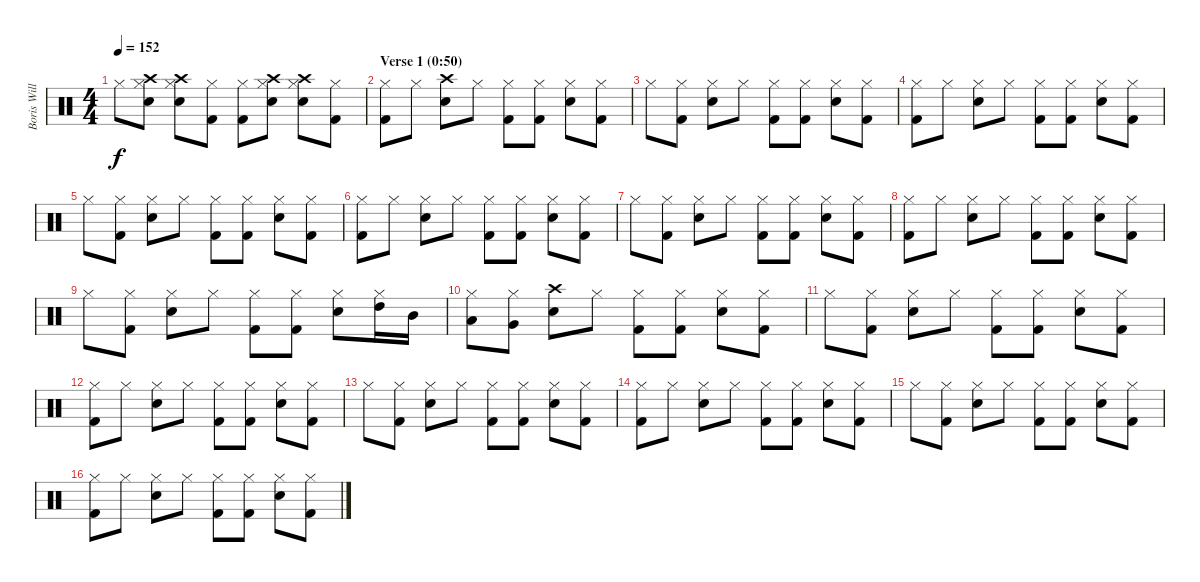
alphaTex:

\track ("Boris Williams (drums)" "Boris Will") {instrument percussion}
\staff {score}
\articulation defaults
\ts (4 4)
\tempo 152
\clef neutral
\ks c "Hi-Hat (closed)".8{dy f}
("Crash high (hit)" "Snare (hit) 2" "Hi-Hat (closed)").8 ("Crash high (hit)" "Snare (hit) 2" "Hi-Hat (closed)").8 ("Kick (hit) 2" "Hi-Hat (closed)").8 ("Kick (hit) 2" "Hi-Hat (closed)").8 ("Crash high (hit)" "Snare (hit) 2" "Hi-Hat (closed)").8 ("Crash high (hit)" "Snare (hit) 2" "Hi-Hat (closed)").8 ("Kick (hit) 2" "Hi-Hat (closed)").8 |
\section ("" "Verse 1 (0:50)")
("Kick (hit) 2" "Hi-Hat (closed)").8 "Hi-Hat (closed)".8 ("Snare (hit) 2" "Crash high (hit)").8 "Hi-Hat (closed)".8 ("Kick (hit) 2" "Hi-Hat (closed)").8 ("Kick (hit) 2" "Hi-Hat (closed)").8 ("Snare (hit) 2" "Hi-Hat (closed)").8 ("Kick (hit) 2" "Hi-Hat (closed)").8 |
"Hi-Hat (closed)".8 ("Kick (hit) 2" "Hi-Hat (closed)").8 ("Snare (hit) 2" "Hi-Hat (closed)").8 "Hi-Hat (closed)".8 ("Kick (hit) 2" "Hi-Hat (closed)").8 ("Kick (hit) 2" "Hi-Hat (closed)").8 ("Snare (hit) 2" "Hi-Hat (closed)").8 ("Kick (hit) 2" "Hi-Hat (closed)").8 |
("Kick (hit) 2" "Hi-Hat (closed)").8 "Hi-Hat (closed)".8 ("Snare (hit) 2" "Hi-Hat (closed)").8 "Hi-Hat (closed)".8 ("Kick (hit) 2" "Hi-Hat (closed)").8 ("Kick (hit) 2" "Hi-Hat (closed)").8 ("Snare (hit) 2" "Hi-Hat (closed)").8 ("Kick (hit) 2" "Hi-Hat (closed)").8 |
"Hi-Hat (closed)".8 ("Kick (hit) 2" "Hi-Hat (closed)").8 ("Snare (hit) 2" "Hi-Hat (closed)").8 "Hi-Hat (closed)".8 ("Kick (hit) 2" "Hi-Hat (closed)").8 ("Kick (hit) 2" "Hi-Hat (closed)").8 ("Snare (hit) 2" "Hi-Hat (closed)").8 ("Kick (hit) 2" "Hi-Hat (closed)").8 |
("Kick (hit) 2" "Hi-Hat (closed)").8 "Hi-Hat (closed)".8 ("Snare (hit) 2" "Hi-Hat (closed)").8 "Hi-Hat (closed)".8 ("Kick (hit) 2" "Hi-Hat (closed)").8 ("Kick (hit) 2" "Hi-Hat (closed)").8 ("Snare (hit) 2" "Hi-Hat (closed)").8 ("Kick (hit) 2" "Hi-Hat (closed)").8 |
"Hi-Hat (closed)".8 ("Kick (hit) 2" "Hi-Hat (closed)").8 ("Snare (hit) 2" "Hi-Hat (closed)").8 "Hi-Hat (closed)".8 ("Kick (hit) 2" "Hi-Hat (closed)").8 ("Kick (hit) 2" "Hi-Hat (closed)").8 ("Snare (hit) 2" "Hi-Hat (closed)").8 ("Kick (hit) 2" "Hi-Hat (closed)").8 |
("Kick (hit) 2" "Hi-Hat (closed)").8 "Hi-Hat (closed)".8 ("Snare (hit) 2" "Hi-Hat (closed)").8 "Hi-Hat (closed)".8 ("Kick (hit) 2" "Hi-Hat (closed)").8 ("Kick (hit) 2" "Hi-Hat (closed)").8 ("Snare (hit) 2" "Hi-Hat (closed)").8 ("Kick (hit) 2" "Hi-Hat (closed)").8 |
"Hi-Hat (closed)".8 ("Kick (hit) 2" "Hi-Hat (closed)").8 ("Snare (hit) 2" "Hi-Hat (closed)").8 "Hi-Hat (closed)".8 ("Kick (hit) 2" "Hi-Hat (closed)").8 ("Kick (hit) 2" "Hi-Hat (closed)").8 ("Snare (hit) 2" "Hi-Hat (closed)").8 ("High Tom (hit)" "Hi-Hat (closed)").16 "Mid Tom (hit)".16 |
("Low Tom (hit)" "Hi-Hat (closed)").8 ("Very Low Tom (hit)" "Hi-Hat (closed)").8 ("Snare (hit) 2" "Crash high (hit)").8 "Hi-Hat (closed)".8 ("Kick (hit) 2" "Hi-Hat (closed)").8 ("Kick (hit) 2" "Hi-Hat (closed)").8 ("Snare (hit) 2" "Hi-Hat (closed)").8 ("Kick (hit) 2" "Hi-Hat (closed)").8 |
"Hi-Hat (closed)".8 ("Kick (hit) 2" "Hi-Hat (closed)").8 ("Snare (hit) 2" "Hi-Hat (closed)").8 "Hi-Hat (closed)".8 ("Kick (hit) 2" "Hi-Hat (closed)").8 ("Kick (hit) 2" "Hi-Hat (closed)").8 ("Snare (hit) 2" "Hi-Hat (closed)").8 ("Kick (hit) 2" "Hi-Hat (closed)").8 |
("Kick (hit) 2" "Hi-Hat (closed)").8 "Hi-Hat (closed)".8 ("Snare (hit) 2" "Hi-Hat (closed)").8 "Hi-Hat (closed)".8 ("Kick (hit) 2" "Hi-Hat (closed)").8 ("Kick (hit) 2" "Hi-Hat (closed)").8 ("Snare (hit) 2" "Hi-Hat (closed)").8 ("Kick (hit) 2" "Hi-Hat (closed)").8 |
"Hi-Hat (closed)".8 ("Kick (hit) 2" "Hi-Hat (closed)").8 ("Snare (hit) 2" "Hi-Hat (closed)").8 "Hi-Hat (closed)".8 ("Kick (hit) 2" "Hi-Hat (closed)").8 ("Kick (hit) 2" "Hi-Hat (closed)").8 ("Snare (hit) 2" "Hi-Hat (closed)").8 ("Kick (hit) 2" "Hi-Hat (closed)").8 |
("Kick (hit) 2" "Hi-Hat (closed)").8 "Hi-Hat (closed)".8 ("Snare (hit) 2" "Hi-Hat (closed)").8 "Hi-Hat (closed)".8 ("Kick (hit) 2" "Hi-Hat (closed)").8 ("Kick (hit) 2" "Hi-Hat (closed)").8 ("Snare (hit) 2" "Hi-Hat (closed)").8 ("Kick (hit) 2" "Hi-Hat (closed)").8 |
"Hi-Hat (closed)".8 ("Kick (hit) 2" "Hi-Hat (closed)").8 ("Snare (hit) 2" "Hi-Hat (closed)").8 "Hi-Hat (closed)".8 ("Kick (hit) 2" "Hi-Hat (closed)").8 ("Kick (hit) 2" "Hi-Hat (closed)").8 ("Snare (hit) 2" "Hi-Hat (closed)").8 ("Kick (hit) 2" "Hi-Hat (closed)").8 |
("Kick (hit) 2" "Hi-Hat (closed)").8 "Hi-Hat (closed)".8 ("Snare (hit) 2" "Hi-Hat (closed)").8 "Hi-Hat (closed)".8 ("Kick (hit) 2" "Hi-Hat (closed)").8 ("Kick (hit) 2" "Hi-Hat (closed)").8 ("Snare (hit) 2" "Hi-Hat (closed)").8 ("Kick (hit) 2" "Hi-Hat (closed)").8
